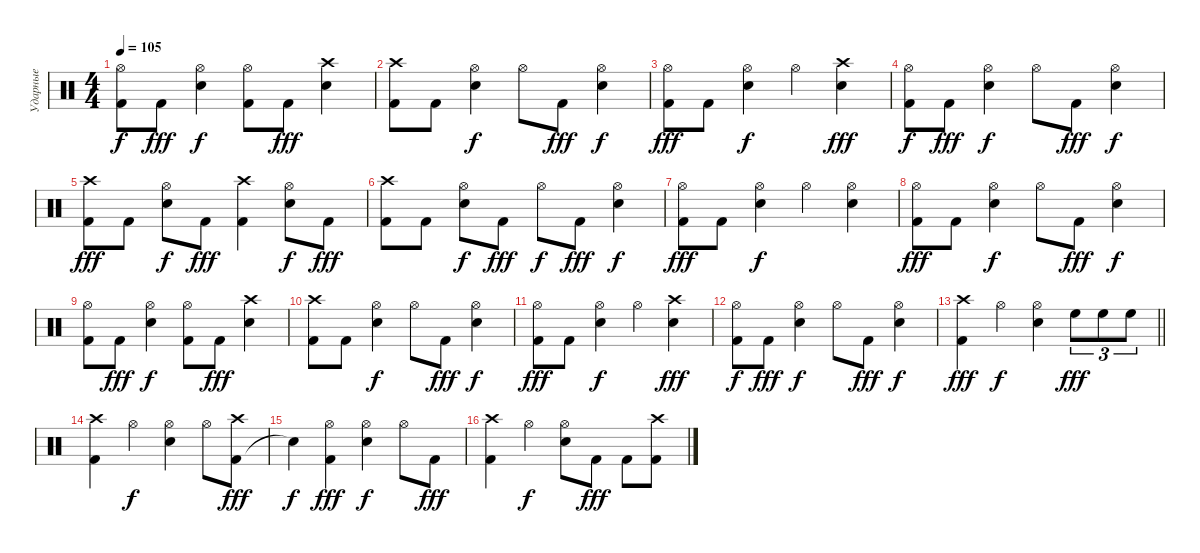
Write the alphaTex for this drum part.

\track ("Ударные" "Ударные") {instrument percussion}
\staff {score}
\articulation defaults
\ts (4 4)
\tempo 105
\clef neutral
\ks c
("Kick (hit) 2" "Hi-Hat (open)").8{dy f} "Kick (hit) 2".8{dy fff} ("Snare (hit) 2" "Hi-Hat (open)").4{dy f} ("Kick (hit) 2" "Hi-Hat (open)").8 "Kick (hit) 2".8{dy fff} ("Snare (hit) 2" "Crash high (hit)").4 |
("Kick (hit) 2" "Crash high (hit)").8 "Kick (hit) 2".8 ("Snare (hit) 2" "Hi-Hat (open)").4{dy f} "Hi-Hat (open)".8 "Kick (hit) 2".8{dy fff} ("Snare (hit) 2" "Hi-Hat (open)").4{dy f} |
("Kick (hit) 2" "Hi-Hat (open)").8{dy fff} "Kick (hit) 2".8 ("Snare (hit) 2" "Hi-Hat (open)").4{dy f} "Hi-Hat (open)".4 ("Snare (hit) 2" "Crash high (hit)").4{dy fff} |
("Kick (hit) 2" "Hi-Hat (open)").8{dy f} "Kick (hit) 2".8{dy fff} ("Snare (hit) 2" "Hi-Hat (open)").4{dy f} "Hi-Hat (open)".8 "Kick (hit) 2".8{dy fff} ("Snare (hit) 2" "Hi-Hat (open)").4{dy f} |
("Kick (hit) 2" "Crash high (hit)").8{dy fff} "Kick (hit) 2".8 ("Snare (hit) 2" "Hi-Hat (open)").8{dy f} "Kick (hit) 2".8{dy fff} ("Kick (hit) 2" "Crash high (hit)").4 ("Snare (hit) 2" "Hi-Hat (open)").8{dy f} "Kick (hit) 2".8{dy fff} |
("Kick (hit) 2" "Crash high (hit)").8 "Kick (hit) 2".8 ("Snare (hit) 2" "Hi-Hat (open)").8{dy f} "Kick (hit) 2".8{dy fff} "Hi-Hat (open)".8{dy f} "Kick (hit) 2".8{dy fff} ("Snare (hit) 2" "Hi-Hat (open)").4{dy f} |
("Kick (hit) 2" "Hi-Hat (open)").8{dy fff} "Kick (hit) 2".8 ("Snare (hit) 2" "Hi-Hat (open)").4{dy f} "Hi-Hat (open)".4 ("Snare (hit) 2" "Hi-Hat (open)").4 |
("Kick (hit) 2" "Hi-Hat (open)").8{dy fff} "Kick (hit) 2".8 ("Snare (hit) 2" "Hi-Hat (open)").4{dy f} "Hi-Hat (open)".8 "Kick (hit) 2".8{dy fff} ("Snare (hit) 2" "Hi-Hat (open)").4{dy f} |
("Kick (hit) 2" "Hi-Hat (open)").8 "Kick (hit) 2".8{dy fff} ("Snare (hit) 2" "Hi-Hat (open)").4{dy f} ("Kick (hit) 2" "Hi-Hat (open)").8 "Kick (hit) 2".8{dy fff} ("Snare (hit) 2" "Crash high (hit)").4 |
("Kick (hit) 2" "Crash high (hit)").8 "Kick (hit) 2".8 ("Snare (hit) 2" "Hi-Hat (open)").4{dy f} "Hi-Hat (open)".8 "Kick (hit) 2".8{dy fff} ("Snare (hit) 2" "Hi-Hat (open)").4{dy f} |
("Kick (hit) 2" "Hi-Hat (open)").8{dy fff} "Kick (hit) 2".8 ("Snare (hit) 2" "Hi-Hat (open)").4{dy f} "Hi-Hat (open)".4 ("Snare (hit) 2" "Crash high (hit)").4{dy fff} |
("Kick (hit) 2" "Hi-Hat (open)").8{dy f} "Kick (hit) 2".8{dy fff} ("Snare (hit) 2" "Hi-Hat (open)").4{dy f} "Hi-Hat (open)".8 "Kick (hit) 2".8{dy fff} ("Snare (hit) 2" "Hi-Hat (open)").4{dy f} |
\barLineRight lightlight
("Kick (hit) 2" "Crash high (hit)").4{dy fff} "Hi-Hat (open)".4{dy f} ("Snare (hit) 2" "Hi-Hat (open)").4 "High Floor Tom (hit)".8{tu (3 2) dy fff} "High Floor Tom (hit)".8{tu (3 2)} "High Floor Tom (hit)".8{tu (3 2)} |
("Kick (hit) 2" "Crash high (hit)").4 "Hi-Hat (open)".4{dy f} ("Snare (hit) 2" "Hi-Hat (open)").4 "Hi-Hat (open)".8 ("Kick (hit) 2" "Crash high (hit)").8{dy fff} |
"Snare (hit)"{t}.4{dy f} ("Kick (hit) 2" "Hi-Hat (open)").4{dy fff} ("Snare (hit) 2" "Hi-Hat (open)").4{dy f} "Hi-Hat (open)".8 "Kick (hit) 2".8{dy fff} |
("Kick (hit) 2" "Crash high (hit)").4 "Hi-Hat (open)".4{dy f} ("Snare (hit) 2" "Hi-Hat (open)").8 "Kick (hit) 2".8{dy fff} "Kick (hit) 2".8 ("Kick (hit) 2" "Crash high (hit)").8
